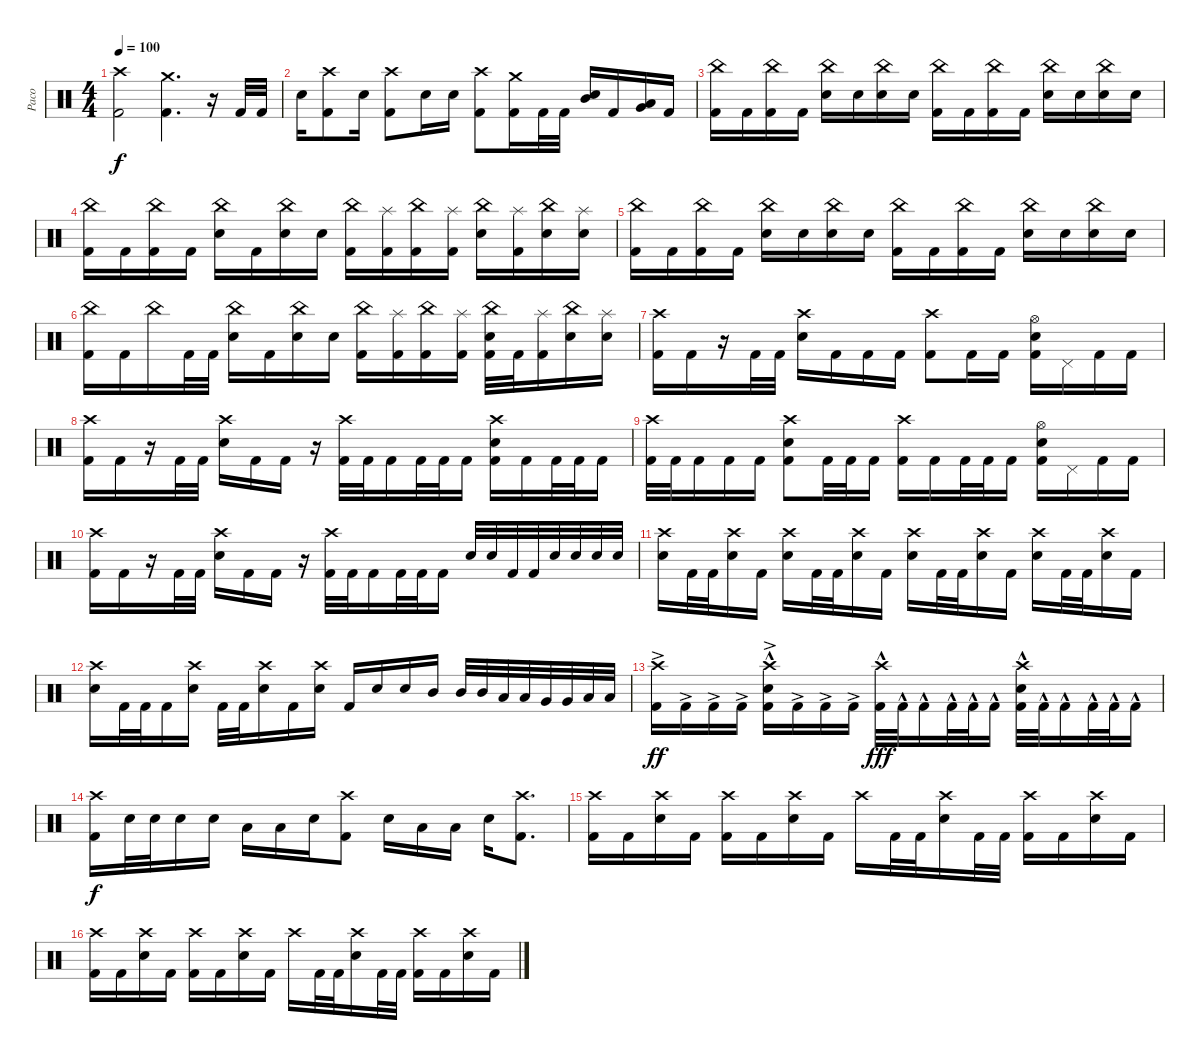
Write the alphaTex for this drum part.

\track ("Paco" "Paco") {instrument percussion}
\staff {score}
\articulation defaults
\ts (4 4)
\tempo 100
\clef neutral
\ks c
("Crash high (hit)" "Kick (hit) 2").2{dy f} ("Crash medium (hit)" "Kick (hit) 2").4{d} r.16 "Kick (hit) 2".32 "Kick (hit) 2".32 |
"Electric Snare (hit)".16 ("Crash high (hit)" "Kick (hit) 2").8 "Electric Snare (hit)".16 ("Crash high (hit)" "Kick (hit) 2").8 "Electric Snare (hit)".16 "Electric Snare (hit)".16 ("Crash high (hit)" "Kick (hit) 2").8 ("Crash medium (hit)" "Kick (hit) 2").16 "Kick (hit) 2".32 "Kick (hit) 2".32 ("Mid Tom (hit)" "Electric Snare (hit)").16 "Kick (hit) 2".16 ("Very Low Tom (hit)" "Low Tom (hit)").16 "Kick (hit) 2".16 |
("China (hit)" "Kick (hit) 2").16 "Kick (hit) 2".16 ("China (hit)" "Kick (hit) 2").16 "Kick (hit) 2".16 ("China (hit)" "Electric Snare (hit)").16 "Electric Snare (hit)".16 ("China (hit)" "Electric Snare (hit)").16 "Electric Snare (hit)".16 ("China (hit)" "Kick (hit) 2").16 "Kick (hit) 2".16 ("China (hit)" "Kick (hit) 2").16 "Kick (hit) 2".16 ("China (hit)" "Electric Snare (hit)").16 "Electric Snare (hit)".16 ("China (hit)" "Electric Snare (hit)").16 "Electric Snare (hit)".16 |
("China (hit)" "Kick (hit) 2").16 "Kick (hit) 2".16 ("China (hit)" "Kick (hit) 2").16 "Kick (hit) 2".16 ("China (hit)" "Electric Snare (hit)").16 "Kick (hit) 2".16 ("China (hit)" "Electric Snare (hit)").16 "Electric Snare (hit)".16 ("China (hit)" "Kick (hit) 2").16 ("Splash (hit)" "Kick (hit) 2").16 ("China (hit)" "Kick (hit) 2").16 ("Splash (hit)" "Kick (hit) 2").16 ("China (hit)" "Electric Snare (hit)").16 ("Splash (hit)" "Kick (hit) 2").16 ("China (hit)" "Electric Snare (hit)").16 ("Splash (hit)" "Electric Snare (hit)").16 |
("China (hit)" "Kick (hit) 2").16 "Kick (hit) 2".16 ("China (hit)" "Kick (hit) 2").16 "Kick (hit) 2".16 ("China (hit)" "Electric Snare (hit)").16 "Electric Snare (hit)".16 ("China (hit)" "Electric Snare (hit)").16 "Electric Snare (hit)".16 ("China (hit)" "Kick (hit) 2").16 "Kick (hit) 2".16 ("China (hit)" "Kick (hit) 2").16 "Kick (hit) 2".16 ("China (hit)" "Electric Snare (hit)").16 "Electric Snare (hit)".16 ("China (hit)" "Electric Snare (hit)").16 "Electric Snare (hit)".16 |
("China (hit)" "Kick (hit) 2").16 "Kick (hit) 2".16 "China (hit)".16 "Kick (hit) 2".32 "Kick (hit) 2".32 ("China (hit)" "Electric Snare (hit)").16 "Kick (hit) 2".16 ("China (hit)" "Electric Snare (hit)").16 "Electric Snare (hit)".16 ("China (hit)" "Kick (hit) 2").16 ("Splash (hit)" "Kick (hit) 2").16 ("China (hit)" "Kick (hit) 2").16 ("Splash (hit)" "Kick (hit) 2").16 ("China (hit)" "Electric Snare (hit)" "Kick (hit) 2").32 "Kick (hit) 2".32 ("Splash (hit)" "Kick (hit) 2").16 ("China (hit)" "Electric Snare (hit)").16 ("Splash (hit)" "Electric Snare (hit)").16 |
("Crash high (hit)" "Kick (hit) 2").16 "Kick (hit) 2".16 r.16 "Kick (hit) 2".32 "Kick (hit) 2".32 ("Crash high (hit)" "Electric Snare (hit)").16 "Kick (hit) 2".16 "Kick (hit) 2".16 "Kick (hit) 2".16 ("Crash high (hit)" "Kick (hit) 2").8 "Kick (hit) 2".16 "Kick (hit) 2".16 ("Hi-Hat (open)" "Electric Snare (hit)" "Kick (hit) 2").16 "Pedal Hi-Hat (hit)".16 "Kick (hit) 2".16 "Kick (hit) 2".16 |
("Crash high (hit)" "Kick (hit) 2").16 "Kick (hit) 2".16 r.16 "Kick (hit) 2".32 "Kick (hit) 2".32 ("Crash high (hit)" "Electric Snare (hit)").16 "Kick (hit) 2".16 "Kick (hit) 2".16 r.16 ("Crash high (hit)" "Kick (hit) 2").32 "Kick (hit) 2".32 "Kick (hit) 2".16 "Kick (hit) 2".32 "Kick (hit) 2".32 "Kick (hit) 2".16 ("Crash high (hit)" "Electric Snare (hit)" "Kick (hit) 2").16 "Kick (hit) 2".16 "Kick (hit) 2".32 "Kick (hit) 2".32 "Kick (hit) 2".16 |
("Crash high (hit)" "Kick (hit) 2").32 "Kick (hit) 2".32 "Kick (hit) 2".16 "Kick (hit) 2".16 "Kick (hit) 2".16 ("Crash high (hit)" "Electric Snare (hit)" "Kick (hit) 2").8 "Kick (hit) 2".32 "Kick (hit) 2".32 "Kick (hit) 2".16 ("Crash high (hit)" "Kick (hit) 2").16 "Kick (hit) 2".16 "Kick (hit) 2".32 "Kick (hit) 2".32 "Kick (hit) 2".16 ("Hi-Hat (open)" "Electric Snare (hit)" "Kick (hit) 2").16 "Pedal Hi-Hat (hit)".16 "Kick (hit) 2".16 "Kick (hit) 2".16 |
("Crash high (hit)" "Kick (hit) 2").16 "Kick (hit) 2".16 r.16 "Kick (hit) 2".32 "Kick (hit) 2".32 ("Crash high (hit)" "Electric Snare (hit)").16 "Kick (hit) 2".16 "Kick (hit) 2".16 r.16 ("Crash high (hit)" "Kick (hit) 2").32 "Kick (hit) 2".32 "Kick (hit) 2".16 "Kick (hit) 2".32 "Kick (hit) 2".32 "Kick (hit) 2".16 "Electric Snare (hit)".32 "Electric Snare (hit)".32 "Kick (hit) 2".32 "Kick (hit) 2".32 "Electric Snare (hit)".32 "Electric Snare (hit)".32 "Electric Snare (hit)".32 "Electric Snare (hit)".32 |
("Crash high (hit)" "Electric Snare (hit)").16 "Kick (hit) 2".32 "Kick (hit) 2".32 ("Crash high (hit)" "Electric Snare (hit)").16 "Kick (hit) 2".16 ("Crash high (hit)" "Electric Snare (hit)").16 "Kick (hit) 2".32 "Kick (hit) 2".32 ("Crash high (hit)" "Electric Snare (hit)").16 "Kick (hit) 2".16 ("Crash high (hit)" "Electric Snare (hit)").16 "Kick (hit) 2".32 "Kick (hit) 2".32 ("Crash high (hit)" "Electric Snare (hit)").16 "Kick (hit) 2".16 ("Crash high (hit)" "Electric Snare (hit)").16 "Kick (hit) 2".32 "Kick (hit) 2".32 ("Crash high (hit)" "Electric Snare (hit)").16 "Kick (hit) 2".16 |
("Crash high (hit)" "Electric Snare (hit)").16 "Kick (hit) 2".32 "Kick (hit) 2".32 "Kick (hit) 2".16 ("Crash high (hit)" "Electric Snare (hit)").16 "Kick (hit) 2".32 "Kick (hit) 2".32 ("Crash high (hit)" "Electric Snare (hit)").16 "Kick (hit) 2".16 ("Crash high (hit)" "Electric Snare (hit)").16 "Kick (hit) 2".16 "Electric Snare (hit)".16 "Electric Snare (hit)".16 "Mid Tom (hit)".16 "Mid Tom (hit)".32 "Mid Tom (hit)".32 "Low Tom (hit)".32 "Low Tom (hit)".32 "Very Low Tom (hit)".32 "Very Low Tom (hit)".32 "Low Floor Tom (hit)".32 "Low Floor Tom (hit)".32 |
("Crash high (hit)" "Kick (hit) 2"{ac}).16{dy ff} "Kick (hit) 2"{ac}.16 "Kick (hit) 2"{ac}.16 "Kick (hit) 2"{ac}.16 ("Crash high (hit)" "Electric Snare (hit)"{hac} "Kick (hit) 2"{ac}).16 "Kick (hit) 2"{ac}.16 "Kick (hit) 2"{ac}.16 "Kick (hit) 2"{ac}.16 ("Crash high (hit)" "Kick (hit) 2"{hac}).32{dy fff} "Kick (hit) 2"{hac}.32 "Kick (hit) 2"{hac}.16 "Kick (hit) 2"{hac}.32 "Kick (hit) 2"{hac}.32 "Kick (hit) 2"{hac}.16 ("Crash high (hit)" "Electric Snare (hit)"{hac} "Kick (hit) 2"{hac}).32 "Kick (hit) 2"{hac}.32 "Kick (hit) 2"{hac}.16 "Kick (hit) 2"{hac}.32 "Kick (hit) 2"{hac}.32 "Kick (hit) 2"{hac}.16 |
("Crash high (hit)" "Kick (hit) 2").16{dy f} "Electric Snare (hit)".32 "Electric Snare (hit)".32 "Electric Snare (hit)".16 "Electric Snare (hit)".16 "Low Tom (hit)".16 "Low Floor Tom (hit)".16 "Electric Snare (hit)".16 ("Crash high (hit)" "Kick (hit) 2").8 "Electric Snare (hit)".16 "Low Tom (hit)".16 "Low Floor Tom (hit)".16 "Electric Snare (hit)".16 ("Crash high (hit)" "Kick (hit) 2").8{d} |
("Crash high (hit)" "Kick (hit) 2").16 "Kick (hit) 2".16 ("Crash high (hit)" "Electric Snare (hit)").16 "Kick (hit) 2".16 ("Crash high (hit)" "Kick (hit) 2").16 "Kick (hit) 2".16 ("Crash high (hit)" "Electric Snare (hit)").16 "Kick (hit) 2".16 "Crash high (hit)".16 "Kick (hit) 2".32 "Kick (hit) 2".32 ("Crash high (hit)" "Electric Snare (hit)").16 "Kick (hit) 2".32 "Kick (hit) 2".32 ("Crash high (hit)" "Kick (hit) 2").16 "Kick (hit) 2".16 ("Crash high (hit)" "Electric Snare (hit)").16 "Kick (hit) 2".16 |
("Crash high (hit)" "Kick (hit) 2").16 "Kick (hit) 2".16 ("Crash high (hit)" "Electric Snare (hit)").16 "Kick (hit) 2".16 ("Crash high (hit)" "Kick (hit) 2").16 "Kick (hit) 2".16 ("Crash high (hit)" "Electric Snare (hit)").16 "Kick (hit) 2".16 "Crash high (hit)".16 "Kick (hit) 2".32 "Kick (hit) 2".32 ("Crash high (hit)" "Electric Snare (hit)").16 "Kick (hit) 2".32 "Kick (hit) 2".32 ("Crash high (hit)" "Kick (hit) 2").16 "Kick (hit) 2".16 ("Crash high (hit)" "Electric Snare (hit)").16 "Kick (hit) 2".16
